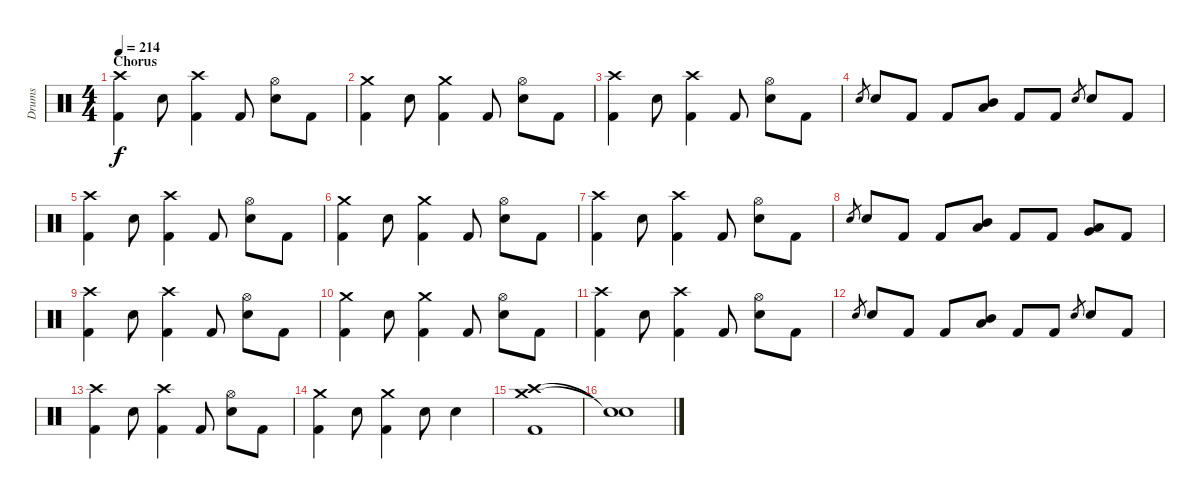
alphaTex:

\track ("Drums" "Drums") {instrument percussion}
\staff {score}
\articulation defaults
\ts (4 4)
\section ("" "Chorus")
\tempo 214
\clef neutral
\ks c
("Crash high (hit)" "Kick (hit) 2").4{dy f} "Electric Snare (hit)".8 ("Crash high (hit)" "Kick (hit) 2").4 "Kick (hit) 2".8 ("Hi-Hat (open)" "Electric Snare (hit)").8 "Kick (hit) 2".8 |
("Crash medium (hit)" "Kick (hit) 2").4 "Electric Snare (hit)".8 ("Crash medium (hit)" "Kick (hit) 2").4 "Kick (hit) 2".8 ("Hi-Hat (open)" "Electric Snare (hit)").8 "Kick (hit) 2".8 |
("Crash high (hit)" "Kick (hit) 2").4 "Electric Snare (hit)".8 ("Crash high (hit)" "Kick (hit) 2").4 "Kick (hit) 2".8 ("Hi-Hat (open)" "Electric Snare (hit)").8 "Kick (hit) 2".8 |
"Electric Snare (hit)".8{gr} "Electric Snare (hit)".8 "Kick (hit) 2".8 "Kick (hit) 2".8 ("Mid Tom (hit)" "Low Tom (hit)").8 "Kick (hit) 2".8 "Kick (hit) 2".8 "Electric Snare (hit)".8{gr} "Electric Snare (hit)".8 "Kick (hit) 2".8 |
("Crash high (hit)" "Kick (hit) 2").4 "Electric Snare (hit)".8 ("Crash high (hit)" "Kick (hit) 2").4 "Kick (hit) 2".8 ("Hi-Hat (open)" "Electric Snare (hit)").8 "Kick (hit) 2".8 |
("Crash medium (hit)" "Kick (hit) 2").4 "Electric Snare (hit)".8 ("Crash medium (hit)" "Kick (hit) 2").4 "Kick (hit) 2".8 ("Hi-Hat (open)" "Electric Snare (hit)").8 "Kick (hit) 2".8 |
("Crash high (hit)" "Kick (hit) 2").4 "Electric Snare (hit)".8 ("Crash high (hit)" "Kick (hit) 2").4 "Kick (hit) 2".8 ("Hi-Hat (open)" "Electric Snare (hit)").8 "Kick (hit) 2".8 |
"Electric Snare (hit)".8{gr} "Electric Snare (hit)".8 "Kick (hit) 2".8 "Kick (hit) 2".8 ("Mid Tom (hit)" "Low Tom (hit)").8 "Kick (hit) 2".8 "Kick (hit) 2".8 ("Low Tom (hit)" "Very Low Tom (hit)").8 "Kick (hit) 2".8 |
("Crash high (hit)" "Kick (hit) 2").4 "Electric Snare (hit)".8 ("Crash high (hit)" "Kick (hit) 2").4 "Kick (hit) 2".8 ("Hi-Hat (open)" "Electric Snare (hit)").8 "Kick (hit) 2".8 |
("Crash medium (hit)" "Kick (hit) 2").4 "Electric Snare (hit)".8 ("Crash medium (hit)" "Kick (hit) 2").4 "Kick (hit) 2".8 ("Hi-Hat (open)" "Electric Snare (hit)").8 "Kick (hit) 2".8 |
("Crash high (hit)" "Kick (hit) 2").4 "Electric Snare (hit)".8 ("Crash high (hit)" "Kick (hit) 2").4 "Kick (hit) 2".8 ("Hi-Hat (open)" "Electric Snare (hit)").8 "Kick (hit) 2".8 |
"Electric Snare (hit)".8{gr} "Electric Snare (hit)".8 "Kick (hit) 2".8 "Kick (hit) 2".8 ("Mid Tom (hit)" "Low Tom (hit)").8 "Kick (hit) 2".8 "Kick (hit) 2".8 "Electric Snare (hit)".8{gr} "Electric Snare (hit)".8 "Kick (hit) 2".8 |
("Crash high (hit)" "Kick (hit) 2").4 "Electric Snare (hit)".8 ("Crash high (hit)" "Kick (hit) 2").4 "Kick (hit) 2".8 ("Hi-Hat (open)" "Electric Snare (hit)").8 "Kick (hit) 2".8 |
("Crash medium (hit)" "Kick (hit) 2").4 "Electric Snare (hit)".8 ("Crash medium (hit)" "Kick (hit) 2").4 "Electric Snare (hit)".8 "Electric Snare (hit)".4 |
("Crash medium (hit)" "Crash high (hit)" "Kick (hit) 2").1 |
("Snare (hit)"{t} "Snare (hit)"{t}).1
